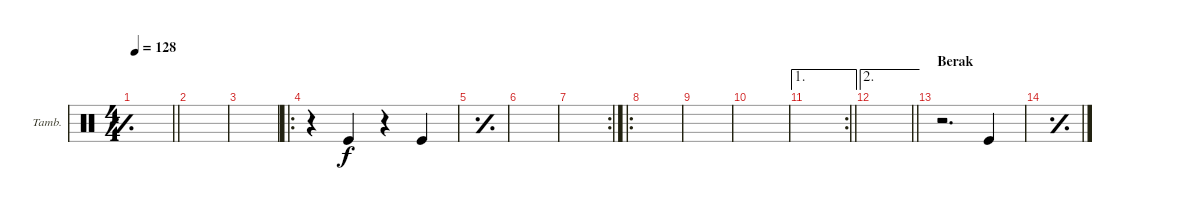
\defaultSystemsLayout 4
\bracketExtendMode groupsimilarinstruments
\firstSystemTrackNameOrientation horizontal
\otherSystemsTrackNameOrientation horizontal
\track ("Tambourine" "Tamb.") {instrument percussion}
\staff {score}
\articulation defaults
\ts (4 4)
\tempo 128
\clef neutral
\simile simple
\scale
0.333333
\barLineRight lightlight
\ks c
|
\scale
0.333333 |
\scale
0.333333 |
\ro
\simile none
\scale
0.377049 r.4 "Kick (hit)".4 r.4 "Kick (hit)".4 |
\simile simple
\scale
0.311475 |
\scale
0.311475 |
\rc 2
\scale
0.333333 |
\ro
\scale
0.365079 |
\scale
0.301587 |
\scale
0.322034 |
\ae 1
\rc 2
\scale
0.355932
\barLineRight lightlight
|
\ae 2
\scale
0.322034
\barLineRight lightlight
|
\section ("" "Berak")
\simile none
\scale
0.333333 r.2{d} "Kick (hit)".4 |
\simile simple
\scale
0.333333 |
\scale
0.333333 |
\scale
0.333333
